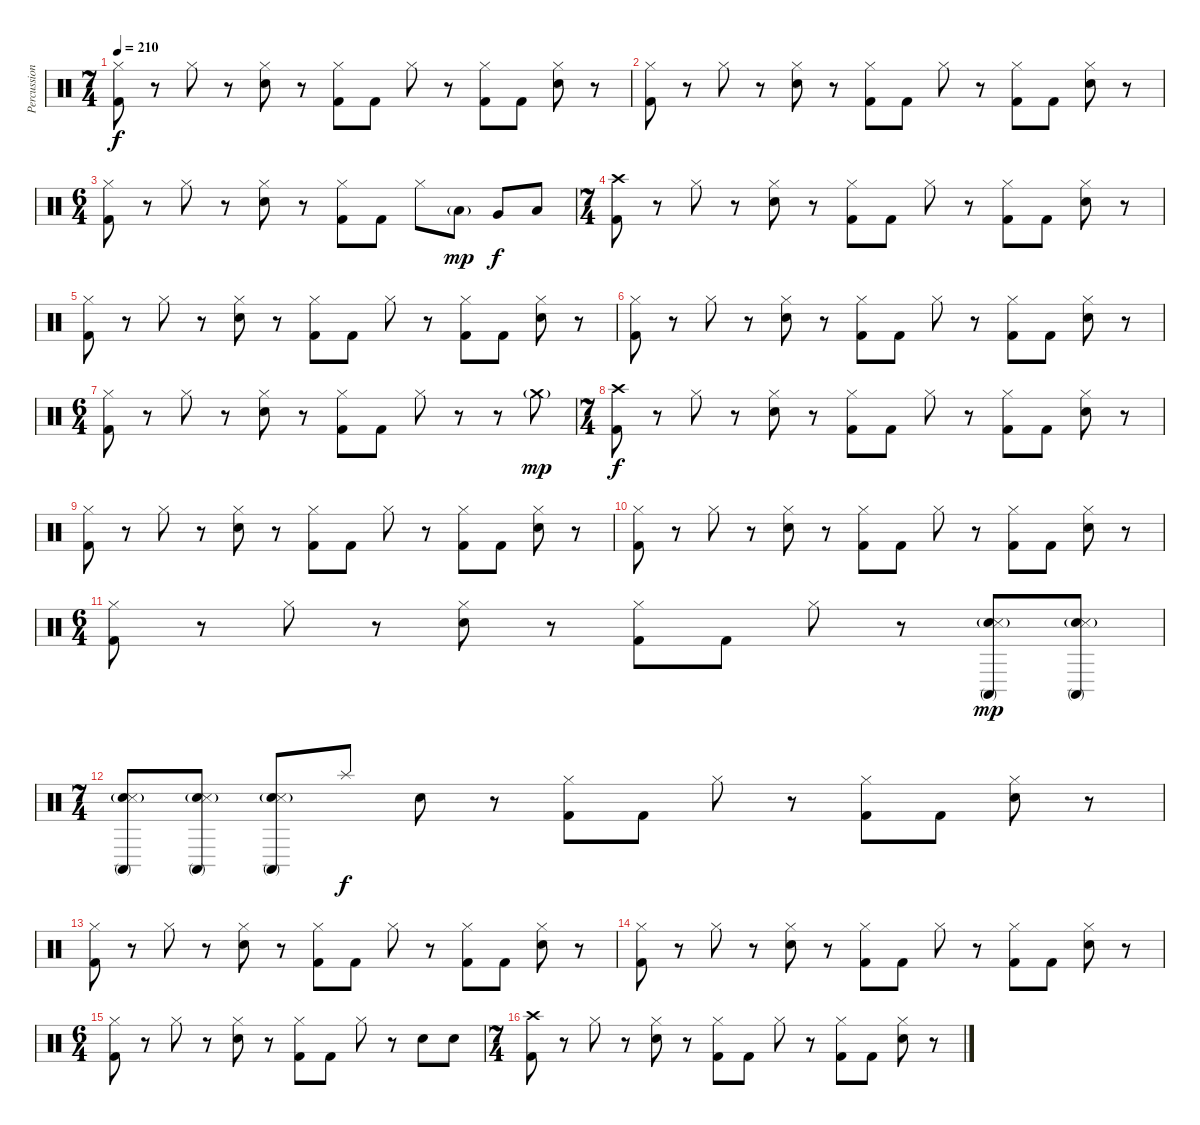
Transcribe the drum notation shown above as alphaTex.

\track ("Percussion" "Percussion") {instrument percussion}
\staff {score}
\articulation defaults
\ts (7 4)
\tempo 210
\clef neutral
\ks c
("Hi-Hat (closed)" "Kick (hit) 2").8{dy f} r.8 "Hi-Hat (closed)".8 r.8 ("Hi-Hat (closed)" "Electric Snare (hit)").8 r.8 ("Hi-Hat (closed)" "Kick (hit) 2").8 "Kick (hit) 2".8 "Hi-Hat (closed)".8 r.8 ("Hi-Hat (closed)" "Kick (hit) 2").8 "Kick (hit) 2".8 ("Hi-Hat (closed)" "Electric Snare (hit)").8 r.8 |
("Hi-Hat (closed)" "Kick (hit) 2").8 r.8 "Hi-Hat (closed)".8 r.8 ("Hi-Hat (closed)" "Electric Snare (hit)").8 r.8 ("Hi-Hat (closed)" "Kick (hit) 2").8 "Kick (hit) 2".8 "Hi-Hat (closed)".8 r.8 ("Hi-Hat (closed)" "Kick (hit) 2").8 "Kick (hit) 2".8 ("Hi-Hat (closed)" "Electric Snare (hit)").8 r.8 |
\ts (6 4)
("Hi-Hat (closed)" "Kick (hit) 2").8 r.8 "Hi-Hat (closed)".8 r.8 ("Hi-Hat (closed)" "Electric Snare (hit)").8 r.8 ("Hi-Hat (closed)" "Kick (hit) 2").8 "Kick (hit) 2".8 "Hi-Hat (closed)".8 "Low Tom (hit)"{g}.8{dy mp} "Very Low Tom (hit)".8{dy f} "Low Floor Tom (hit)".8 |
\ts (7 4)
("Crash high (hit)" "Kick (hit) 2").8 r.8 "Hi-Hat (closed)".8 r.8 ("Hi-Hat (closed)" "Electric Snare (hit)").8 r.8 ("Hi-Hat (closed)" "Kick (hit) 2").8 "Kick (hit) 2".8 "Hi-Hat (closed)".8 r.8 ("Hi-Hat (closed)" "Kick (hit) 2").8 "Kick (hit) 2".8 ("Hi-Hat (closed)" "Electric Snare (hit)").8 r.8 |
("Hi-Hat (closed)" "Kick (hit) 2").8 r.8 "Hi-Hat (closed)".8 r.8 ("Hi-Hat (closed)" "Electric Snare (hit)").8 r.8 ("Hi-Hat (closed)" "Kick (hit) 2").8 "Kick (hit) 2".8 "Hi-Hat (closed)".8 r.8 ("Hi-Hat (closed)" "Kick (hit) 2").8 "Kick (hit) 2".8 ("Hi-Hat (closed)" "Electric Snare (hit)").8 r.8 |
("Hi-Hat (closed)" "Kick (hit) 2").8 r.8 "Hi-Hat (closed)".8 r.8 ("Hi-Hat (closed)" "Electric Snare (hit)").8 r.8 ("Hi-Hat (closed)" "Kick (hit) 2").8 "Kick (hit) 2".8 "Hi-Hat (closed)".8 r.8 ("Hi-Hat (closed)" "Kick (hit) 2").8 "Kick (hit) 2".8 ("Hi-Hat (closed)" "Electric Snare (hit)").8 r.8 |
\ts (6 4)
("Hi-Hat (closed)" "Kick (hit) 2").8 r.8 "Hi-Hat (closed)".8 r.8 ("Hi-Hat (closed)" "Electric Snare (hit)").8 r.8 ("Hi-Hat (closed)" "Kick (hit) 2").8 "Kick (hit) 2".8 "Hi-Hat (closed)".8 r.8 r.8 "Crash medium (hit)"{g}.8{dy mp} |
\ts (7 4)
("Crash high (hit)" "Kick (hit) 2").8{dy f} r.8 "Hi-Hat (closed)".8 r.8 ("Hi-Hat (closed)" "Electric Snare (hit)").8 r.8 ("Hi-Hat (closed)" "Kick (hit) 2").8 "Kick (hit) 2".8 "Hi-Hat (closed)".8 r.8 ("Hi-Hat (closed)" "Kick (hit) 2").8 "Kick (hit) 2".8 ("Hi-Hat (closed)" "Electric Snare (hit)").8 r.8 |
("Hi-Hat (closed)" "Kick (hit) 2").8 r.8 "Hi-Hat (closed)".8 r.8 ("Hi-Hat (closed)" "Electric Snare (hit)").8 r.8 ("Hi-Hat (closed)" "Kick (hit) 2").8 "Kick (hit) 2".8 "Hi-Hat (closed)".8 r.8 ("Hi-Hat (closed)" "Kick (hit) 2").8 "Kick (hit) 2".8 ("Hi-Hat (closed)" "Electric Snare (hit)").8 r.8 |
("Hi-Hat (closed)" "Kick (hit) 2").8 r.8 "Hi-Hat (closed)".8 r.8 ("Hi-Hat (closed)" "Electric Snare (hit)").8 r.8 ("Hi-Hat (closed)" "Kick (hit) 2").8 "Kick (hit) 2".8 "Hi-Hat (closed)".8 r.8 ("Hi-Hat (closed)" "Kick (hit) 2").8 "Kick (hit) 2".8 ("Hi-Hat (closed)" "Electric Snare (hit)").8 r.8 |
\ts (6 4)
("Hi-Hat (closed)" "Kick (hit) 2").8 r.8 "Hi-Hat (closed)".8 r.8 ("Hi-Hat (closed)" "Electric Snare (hit)").8 r.8 ("Hi-Hat (closed)" "Kick (hit) 2").8 "Kick (hit) 2".8 "Hi-Hat (closed)".8 r.8 ("Electric Snare (hit)"{g} "Snare (side stick) 3"{g} "Conga high (mute)").8{dy mp} ("Electric Snare (hit)"{g} "Snare (side stick) 3"{g} "Conga high (mute)").8 |
\ts (7 4)
("Electric Snare (hit)"{g} "Snare (side stick) 3"{g} "Conga high (mute)").8 ("Electric Snare (hit)"{g} "Snare (side stick) 3"{g} "Conga high (mute)").8 ("Electric Snare (hit)"{g} "Snare (side stick) 3"{g} "Conga high (mute)").8 "Splash (hit)".8{dy f} "Electric Snare (hit)".8 r.8 ("Hi-Hat (closed)" "Kick (hit) 2").8 "Kick (hit) 2".8 "Hi-Hat (closed)".8 r.8 ("Hi-Hat (closed)" "Kick (hit) 2").8 "Kick (hit) 2".8 ("Hi-Hat (closed)" "Electric Snare (hit)").8 r.8 |
("Hi-Hat (closed)" "Kick (hit) 2").8 r.8 "Hi-Hat (closed)".8 r.8 ("Hi-Hat (closed)" "Electric Snare (hit)").8 r.8 ("Hi-Hat (closed)" "Kick (hit) 2").8 "Kick (hit) 2".8 "Hi-Hat (closed)".8 r.8 ("Hi-Hat (closed)" "Kick (hit) 2").8 "Kick (hit) 2".8 ("Hi-Hat (closed)" "Electric Snare (hit)").8 r.8 |
("Hi-Hat (closed)" "Kick (hit) 2").8 r.8 "Hi-Hat (closed)".8 r.8 ("Hi-Hat (closed)" "Electric Snare (hit)").8 r.8 ("Hi-Hat (closed)" "Kick (hit) 2").8 "Kick (hit) 2".8 "Hi-Hat (closed)".8 r.8 ("Hi-Hat (closed)" "Kick (hit) 2").8 "Kick (hit) 2".8 ("Hi-Hat (closed)" "Electric Snare (hit)").8 r.8 |
\ts (6 4)
("Hi-Hat (closed)" "Kick (hit) 2").8 r.8 "Hi-Hat (closed)".8 r.8 ("Hi-Hat (closed)" "Electric Snare (hit)").8 r.8 ("Hi-Hat (closed)" "Kick (hit) 2").8 "Kick (hit) 2".8 "Hi-Hat (closed)".8 r.8 "Electric Snare (hit)".8 "Electric Snare (hit)".8 |
\ts (7 4)
("Crash high (hit)" "Kick (hit) 2").8 r.8 "Hi-Hat (closed)".8 r.8 ("Hi-Hat (closed)" "Electric Snare (hit)").8 r.8 ("Hi-Hat (closed)" "Kick (hit) 2").8 "Kick (hit) 2".8 "Hi-Hat (closed)".8 r.8 ("Hi-Hat (closed)" "Kick (hit) 2").8 "Kick (hit) 2".8 ("Hi-Hat (closed)" "Electric Snare (hit)").8 r.8
